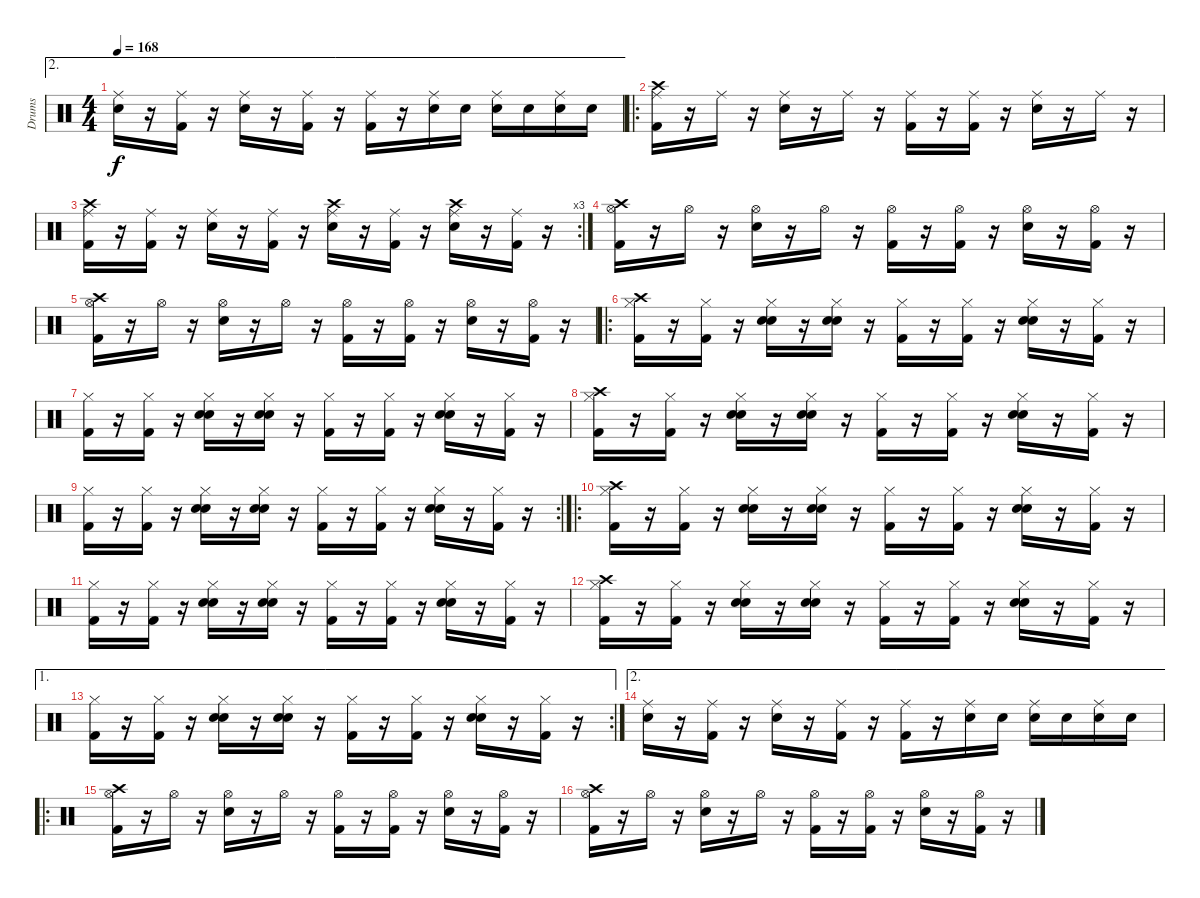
\track ("Drums" "Drums") {instrument percussion}
\staff {score}
\articulation defaults
\ae 2
\ts (4 4)
\tempo 168
\clef neutral
\ks c
("Ride (middle)" "Snare (hit) 2").16{dy f} r.16 ("Ride (middle)" "Kick (hit) 2").16 r.16 ("Ride (middle)" "Snare (hit) 2").16 r.16 ("Ride (middle)" "Kick (hit) 2").16 r.16 ("Ride (middle)" "Kick (hit) 2").16 r.16 ("Ride (middle)" "Snare (hit) 2").16 "Snare (hit) 2".16 ("Ride (middle)" "Snare (hit) 2").16 "Snare (hit) 2".16 ("Ride (middle)" "Snare (hit) 2").16 "Snare (hit) 2".16 |
\ro
("Ride (middle)" "Kick (hit) 2" "Crash high (hit)").16 r.16 "Ride (middle)".16 r.16 ("Ride (middle)" "Snare (hit) 2").16 r.16 "Ride (middle)".16 r.16 ("Ride (middle)" "Kick (hit) 2").16 r.16 ("Ride (middle)" "Kick (hit) 2").16 r.16 ("Ride (middle)" "Snare (hit) 2").16 r.16 "Ride (middle)".16 r.16 |
\rc 3
("Ride (middle)" "Kick (hit) 2" "Crash high (hit)").16 r.16 ("Ride (middle)" "Kick (hit) 2").16 r.16 ("Ride (middle)" "Snare (hit) 2").16 r.16 ("Ride (middle)" "Kick (hit) 2").16 r.16 ("Ride (middle)" "Snare (hit) 2" "Crash high (hit)").16 r.16 ("Ride (middle)" "Kick (hit) 2").16 r.16 ("Ride (middle)" "Snare (hit) 2" "Crash high (hit)").16 r.16 ("Ride (middle)" "Kick (hit) 2").16 r.16 |
("Hi-Hat (open)" "Kick (hit) 2" "Crash high (hit)").16 r.16 "Hi-Hat (open)".16 r.16 ("Hi-Hat (open)" "Snare (hit) 2").16 r.16 "Hi-Hat (open)".16 r.16 ("Hi-Hat (open)" "Kick (hit) 2").16 r.16 ("Hi-Hat (open)" "Kick (hit) 2").16 r.16 ("Hi-Hat (open)" "Snare (hit) 2").16 r.16 ("Hi-Hat (open)" "Kick (hit) 2").16 r.16 |
("Hi-Hat (open)" "Kick (hit) 2" "Crash high (hit)").16 r.16 "Hi-Hat (open)".16 r.16 ("Hi-Hat (open)" "Snare (hit) 2").16 r.16 "Hi-Hat (open)".16 r.16 ("Hi-Hat (open)" "Kick (hit) 2").16 r.16 ("Hi-Hat (open)" "Kick (hit) 2").16 r.16 ("Hi-Hat (open)" "Snare (hit) 2").16 r.16 ("Hi-Hat (open)" "Kick (hit) 2").16 r.16 |
\ro
("Hi-Hat (closed)" "Kick (hit) 2" "Crash high (hit)").16 r.16 ("Hi-Hat (closed)" "Kick (hit) 2").16 r.16 ("Hi-Hat (closed)" "Snare (hit) 2" "Hand Clap (hit)").16 r.16 ("Hi-Hat (closed)" "Snare (hit) 2" "Hand Clap (hit)").16 r.16 ("Hi-Hat (closed)" "Kick (hit) 2").16 r.16 ("Hi-Hat (closed)" "Kick (hit) 2").16 r.16 ("Hi-Hat (closed)" "Snare (hit) 2" "Hand Clap (hit)").16 r.16 ("Hi-Hat (closed)" "Kick (hit) 2").16 r.16 |
("Hi-Hat (closed)" "Kick (hit) 2").16 r.16 ("Hi-Hat (closed)" "Kick (hit) 2").16 r.16 ("Hi-Hat (closed)" "Snare (hit) 2" "Hand Clap (hit)").16 r.16 ("Hi-Hat (closed)" "Snare (hit) 2" "Hand Clap (hit)").16 r.16 ("Hi-Hat (closed)" "Kick (hit) 2").16 r.16 ("Hi-Hat (closed)" "Kick (hit) 2").16 r.16 ("Hi-Hat (closed)" "Snare (hit) 2" "Hand Clap (hit)").16 r.16 ("Hi-Hat (closed)" "Kick (hit) 2").16 r.16 |
("Hi-Hat (closed)" "Kick (hit) 2" "Crash high (hit)").16 r.16 ("Hi-Hat (closed)" "Kick (hit) 2").16 r.16 ("Hi-Hat (closed)" "Snare (hit) 2" "Hand Clap (hit)").16 r.16 ("Hi-Hat (closed)" "Snare (hit) 2" "Hand Clap (hit)").16 r.16 ("Hi-Hat (closed)" "Kick (hit) 2").16 r.16 ("Hi-Hat (closed)" "Kick (hit) 2").16 r.16 ("Hi-Hat (closed)" "Snare (hit) 2" "Hand Clap (hit)").16 r.16 ("Hi-Hat (closed)" "Kick (hit) 2").16 r.16 |
\rc 2
("Hi-Hat (closed)" "Kick (hit) 2").16 r.16 ("Hi-Hat (closed)" "Kick (hit) 2").16 r.16 ("Hi-Hat (closed)" "Snare (hit) 2" "Hand Clap (hit)").16 r.16 ("Hi-Hat (closed)" "Snare (hit) 2" "Hand Clap (hit)").16 r.16 ("Hi-Hat (closed)" "Kick (hit) 2").16 r.16 ("Hi-Hat (closed)" "Kick (hit) 2").16 r.16 ("Hi-Hat (closed)" "Snare (hit) 2" "Hand Clap (hit)").16 r.16 ("Hi-Hat (closed)" "Kick (hit) 2").16 r.16 |
\ro
("Hi-Hat (closed)" "Kick (hit) 2" "Crash high (hit)").16 r.16 ("Hi-Hat (closed)" "Kick (hit) 2").16 r.16 ("Hi-Hat (closed)" "Snare (hit) 2" "Hand Clap (hit)").16 r.16 ("Hi-Hat (closed)" "Snare (hit) 2" "Hand Clap (hit)").16 r.16 ("Hi-Hat (closed)" "Kick (hit) 2").16 r.16 ("Hi-Hat (closed)" "Kick (hit) 2").16 r.16 ("Hi-Hat (closed)" "Snare (hit) 2" "Hand Clap (hit)").16 r.16 ("Hi-Hat (closed)" "Kick (hit) 2").16 r.16 |
("Hi-Hat (closed)" "Kick (hit) 2").16 r.16 ("Hi-Hat (closed)" "Kick (hit) 2").16 r.16 ("Hi-Hat (closed)" "Snare (hit) 2" "Hand Clap (hit)").16 r.16 ("Hi-Hat (closed)" "Snare (hit) 2" "Hand Clap (hit)").16 r.16 ("Hi-Hat (closed)" "Kick (hit) 2").16 r.16 ("Hi-Hat (closed)" "Kick (hit) 2").16 r.16 ("Hi-Hat (closed)" "Snare (hit) 2" "Hand Clap (hit)").16 r.16 ("Hi-Hat (closed)" "Kick (hit) 2").16 r.16 |
("Hi-Hat (closed)" "Kick (hit) 2" "Crash high (hit)").16 r.16 ("Hi-Hat (closed)" "Kick (hit) 2").16 r.16 ("Hi-Hat (closed)" "Snare (hit) 2" "Hand Clap (hit)").16 r.16 ("Hi-Hat (closed)" "Snare (hit) 2" "Hand Clap (hit)").16 r.16 ("Hi-Hat (closed)" "Kick (hit) 2").16 r.16 ("Hi-Hat (closed)" "Kick (hit) 2").16 r.16 ("Hi-Hat (closed)" "Snare (hit) 2" "Hand Clap (hit)").16 r.16 ("Hi-Hat (closed)" "Kick (hit) 2").16 r.16 |
\ae 1
\rc 2
("Hi-Hat (closed)" "Kick (hit) 2").16 r.16 ("Hi-Hat (closed)" "Kick (hit) 2").16 r.16 ("Hi-Hat (closed)" "Snare (hit) 2" "Hand Clap (hit)").16 r.16 ("Hi-Hat (closed)" "Snare (hit) 2" "Hand Clap (hit)").16 r.16 ("Hi-Hat (closed)" "Kick (hit) 2").16 r.16 ("Hi-Hat (closed)" "Kick (hit) 2").16 r.16 ("Hi-Hat (closed)" "Snare (hit) 2" "Hand Clap (hit)").16 r.16 ("Hi-Hat (closed)" "Kick (hit) 2").16 r.16 |
\ae 2
("Ride (middle)" "Snare (hit) 2").16 r.16 ("Ride (middle)" "Kick (hit) 2").16 r.16 ("Ride (middle)" "Snare (hit) 2").16 r.16 ("Ride (middle)" "Kick (hit) 2").16 r.16 ("Ride (middle)" "Kick (hit) 2").16 r.16 ("Ride (middle)" "Snare (hit) 2").16 "Snare (hit) 2".16 ("Ride (middle)" "Snare (hit) 2").16 "Snare (hit) 2".16 ("Ride (middle)" "Snare (hit) 2").16 "Snare (hit) 2".16 |
\ro
("Hi-Hat (open)" "Kick (hit) 2" "Crash high (hit)").16 r.16 "Hi-Hat (open)".16 r.16 ("Hi-Hat (open)" "Snare (hit) 2").16 r.16 "Hi-Hat (open)".16 r.16 ("Hi-Hat (open)" "Kick (hit) 2").16 r.16 ("Hi-Hat (open)" "Kick (hit) 2").16 r.16 ("Hi-Hat (open)" "Snare (hit) 2").16 r.16 ("Hi-Hat (open)" "Kick (hit) 2").16 r.16 |
("Hi-Hat (open)" "Kick (hit) 2" "Crash high (hit)").16 r.16 "Hi-Hat (open)".16 r.16 ("Hi-Hat (open)" "Snare (hit) 2").16 r.16 "Hi-Hat (open)".16 r.16 ("Hi-Hat (open)" "Kick (hit) 2").16 r.16 ("Hi-Hat (open)" "Kick (hit) 2").16 r.16 ("Hi-Hat (open)" "Snare (hit) 2").16 r.16 ("Hi-Hat (open)" "Kick (hit) 2").16 r.16
